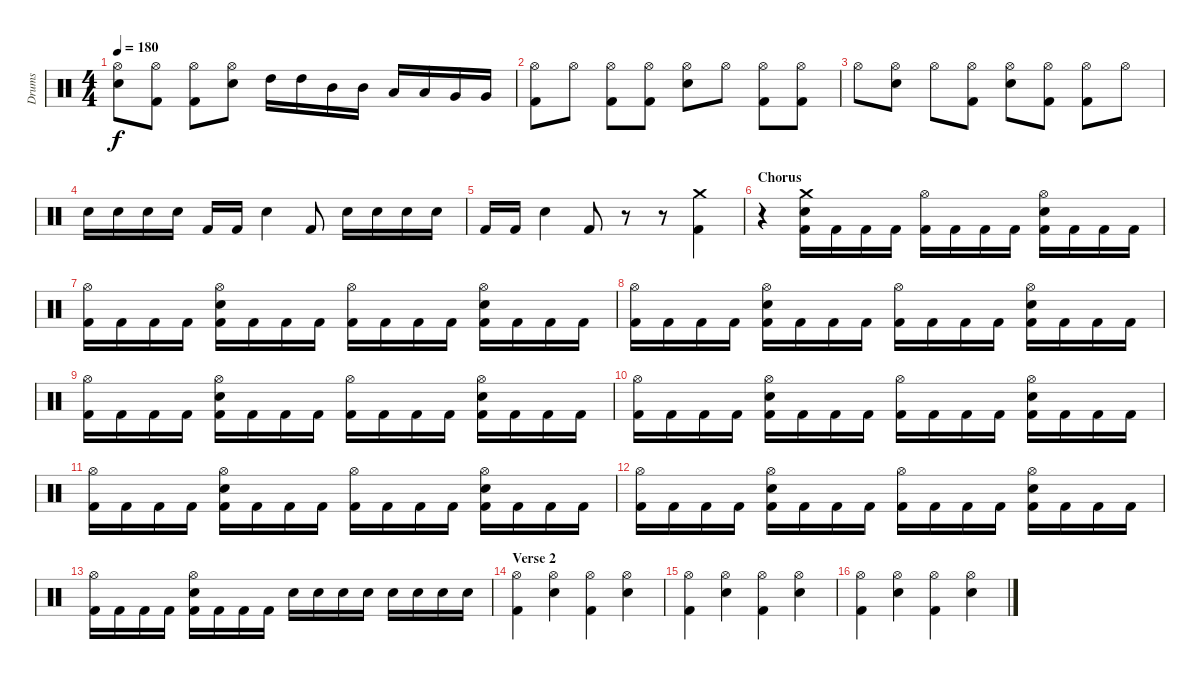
\track ("Drums" "Drums") {instrument percussion}
\staff {score}
\articulation defaults
\ts (4 4)
\tempo 180
\clef neutral
\ks c
("Hi-Hat (open)" "Electric Snare (hit)").8{dy f} ("Hi-Hat (open)" "Kick (hit) 2").8 ("Hi-Hat (open)" "Kick (hit) 2").8 ("Hi-Hat (open)" "Electric Snare (hit)").8 "High Tom (hit)".16 "High Tom (hit)".16 "Mid Tom (hit)".16 "Mid Tom (hit)".16 "Low Tom (hit)".16 "Low Tom (hit)".16 "Very Low Tom (hit)".16 "Very Low Tom (hit)".16 |
("Hi-Hat (open)" "Kick (hit) 2").8 "Hi-Hat (open)".8 ("Hi-Hat (open)" "Kick (hit) 2").8 ("Hi-Hat (open)" "Kick (hit) 2").8 ("Hi-Hat (open)" "Electric Snare (hit)").8 "Hi-Hat (open)".8 ("Hi-Hat (open)" "Kick (hit) 2").8 ("Hi-Hat (open)" "Kick (hit) 2").8 |
"Hi-Hat (open)".8 ("Hi-Hat (open)" "Electric Snare (hit)").8 "Hi-Hat (open)".8 ("Hi-Hat (open)" "Kick (hit) 2").8 ("Hi-Hat (open)" "Electric Snare (hit)").8 ("Hi-Hat (open)" "Kick (hit) 2").8 ("Hi-Hat (open)" "Kick (hit) 2").8 "Hi-Hat (open)".8 |
"Electric Snare (hit)".16 "Electric Snare (hit)".16 "Electric Snare (hit)".16 "Electric Snare (hit)".16 "Kick (hit) 2".16 "Kick (hit) 2".16 "Electric Snare (hit)".4 "Kick (hit) 2".8 "Electric Snare (hit)".16 "Electric Snare (hit)".16 "Electric Snare (hit)".16 "Electric Snare (hit)".16 |
"Kick (hit) 2".16 "Kick (hit) 2".16 "Electric Snare (hit)".4 "Kick (hit) 2".8 r.8 r.8 ("Crash medium (hit)" "Kick (hit) 2").4 |
\section ("" "Chorus")
r.4 ("Crash medium (hit)" "Electric Snare (hit)" "Kick (hit) 2").16 "Kick (hit) 2".16 "Kick (hit) 2".16 "Kick (hit) 2".16 ("Hi-Hat (open)" "Kick (hit) 2").16 "Kick (hit) 2".16 "Kick (hit) 2".16 "Kick (hit) 2".16 ("Hi-Hat (open)" "Electric Snare (hit)" "Kick (hit) 2").16 "Kick (hit) 2".16 "Kick (hit) 2".16 "Kick (hit) 2".16 |
("Hi-Hat (open)" "Kick (hit) 2").16 "Kick (hit) 2".16 "Kick (hit) 2".16 "Kick (hit) 2".16 ("Hi-Hat (open)" "Electric Snare (hit)" "Kick (hit) 2").16 "Kick (hit) 2".16 "Kick (hit) 2".16 "Kick (hit) 2".16 ("Hi-Hat (open)" "Kick (hit) 2").16 "Kick (hit) 2".16 "Kick (hit) 2".16 "Kick (hit) 2".16 ("Hi-Hat (open)" "Electric Snare (hit)" "Kick (hit) 2").16 "Kick (hit) 2".16 "Kick (hit) 2".16 "Kick (hit) 2".16 |
("Hi-Hat (open)" "Kick (hit) 2").16 "Kick (hit) 2".16 "Kick (hit) 2".16 "Kick (hit) 2".16 ("Hi-Hat (open)" "Electric Snare (hit)" "Kick (hit) 2").16 "Kick (hit) 2".16 "Kick (hit) 2".16 "Kick (hit) 2".16 ("Hi-Hat (open)" "Kick (hit) 2").16 "Kick (hit) 2".16 "Kick (hit) 2".16 "Kick (hit) 2".16 ("Hi-Hat (open)" "Electric Snare (hit)" "Kick (hit) 2").16 "Kick (hit) 2".16 "Kick (hit) 2".16 "Kick (hit) 2".16 |
("Hi-Hat (open)" "Kick (hit) 2").16 "Kick (hit) 2".16 "Kick (hit) 2".16 "Kick (hit) 2".16 ("Hi-Hat (open)" "Electric Snare (hit)" "Kick (hit) 2").16 "Kick (hit) 2".16 "Kick (hit) 2".16 "Kick (hit) 2".16 ("Hi-Hat (open)" "Kick (hit) 2").16 "Kick (hit) 2".16 "Kick (hit) 2".16 "Kick (hit) 2".16 ("Hi-Hat (open)" "Electric Snare (hit)" "Kick (hit) 2").16 "Kick (hit) 2".16 "Kick (hit) 2".16 "Kick (hit) 2".16 |
("Hi-Hat (open)" "Kick (hit) 2").16 "Kick (hit) 2".16 "Kick (hit) 2".16 "Kick (hit) 2".16 ("Hi-Hat (open)" "Electric Snare (hit)" "Kick (hit) 2").16 "Kick (hit) 2".16 "Kick (hit) 2".16 "Kick (hit) 2".16 ("Hi-Hat (open)" "Kick (hit) 2").16 "Kick (hit) 2".16 "Kick (hit) 2".16 "Kick (hit) 2".16 ("Hi-Hat (open)" "Electric Snare (hit)" "Kick (hit) 2").16 "Kick (hit) 2".16 "Kick (hit) 2".16 "Kick (hit) 2".16 |
("Hi-Hat (open)" "Kick (hit) 2").16 "Kick (hit) 2".16 "Kick (hit) 2".16 "Kick (hit) 2".16 ("Hi-Hat (open)" "Electric Snare (hit)" "Kick (hit) 2").16 "Kick (hit) 2".16 "Kick (hit) 2".16 "Kick (hit) 2".16 ("Hi-Hat (open)" "Kick (hit) 2").16 "Kick (hit) 2".16 "Kick (hit) 2".16 "Kick (hit) 2".16 ("Hi-Hat (open)" "Electric Snare (hit)" "Kick (hit) 2").16 "Kick (hit) 2".16 "Kick (hit) 2".16 "Kick (hit) 2".16 |
("Hi-Hat (open)" "Kick (hit) 2").16 "Kick (hit) 2".16 "Kick (hit) 2".16 "Kick (hit) 2".16 ("Hi-Hat (open)" "Electric Snare (hit)" "Kick (hit) 2").16 "Kick (hit) 2".16 "Kick (hit) 2".16 "Kick (hit) 2".16 ("Hi-Hat (open)" "Kick (hit) 2").16 "Kick (hit) 2".16 "Kick (hit) 2".16 "Kick (hit) 2".16 ("Hi-Hat (open)" "Electric Snare (hit)" "Kick (hit) 2").16 "Kick (hit) 2".16 "Kick (hit) 2".16 "Kick (hit) 2".16 |
("Hi-Hat (open)" "Kick (hit) 2").16 "Kick (hit) 2".16 "Kick (hit) 2".16 "Kick (hit) 2".16 ("Hi-Hat (open)" "Electric Snare (hit)" "Kick (hit) 2").16 "Kick (hit) 2".16 "Kick (hit) 2".16 "Kick (hit) 2".16 "Electric Snare (hit)".16 "Electric Snare (hit)".16 "Electric Snare (hit)".16 "Electric Snare (hit)".16 "Electric Snare (hit)".16 "Electric Snare (hit)".16 "Electric Snare (hit)".16 "Electric Snare (hit)".16 |
\section ("" "Verse 2")
("Hi-Hat (open)" "Kick (hit) 2").4 ("Hi-Hat (open)" "Electric Snare (hit)").4 ("Hi-Hat (open)" "Kick (hit) 2").4 ("Hi-Hat (open)" "Electric Snare (hit)").4 |
("Hi-Hat (open)" "Kick (hit) 2").4 ("Hi-Hat (open)" "Electric Snare (hit)").4 ("Hi-Hat (open)" "Kick (hit) 2").4 ("Hi-Hat (open)" "Electric Snare (hit)").4 |
("Hi-Hat (open)" "Kick (hit) 2").4 ("Hi-Hat (open)" "Electric Snare (hit)").4 ("Hi-Hat (open)" "Kick (hit) 2").4 ("Hi-Hat (open)" "Electric Snare (hit)").4
